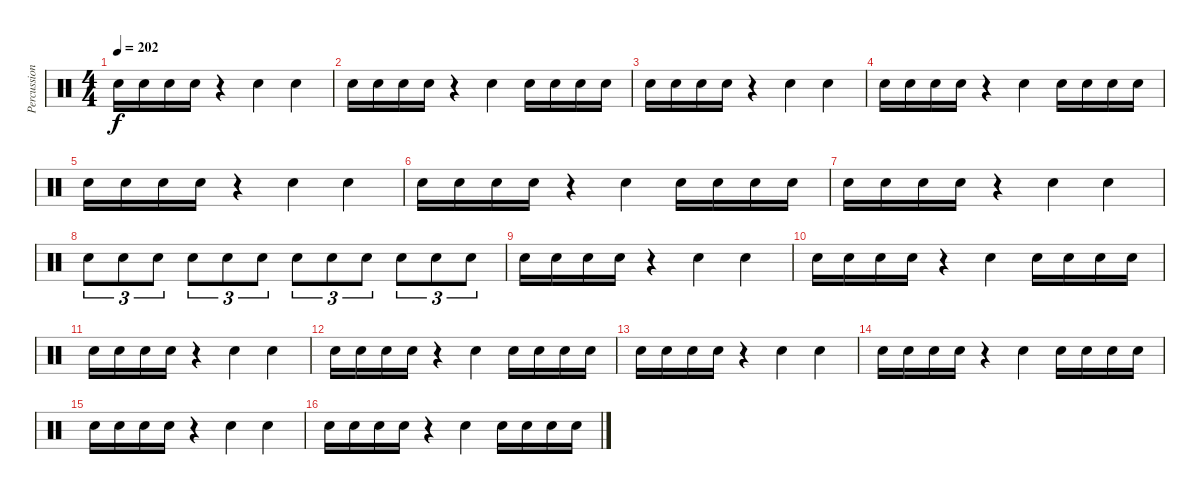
\track ("Percussion" "Percussion") {instrument percussion}
\staff {score}
\articulation defaults
\ts (4 4)
\tempo 202
\clef neutral
\ks c "Snare (hit) 2".16{dy f} "Snare (hit) 2".16 "Snare (hit) 2".16 "Snare (hit) 2".16
r.4 "Snare (hit) 2".4 "Snare (hit) 2".4 |
"Snare (hit) 2".16 "Snare (hit) 2".16 "Snare (hit) 2".16 "Snare (hit) 2".16 r.4 "Snare (hit) 2".4 "Snare (hit) 2".16 "Snare (hit) 2".16 "Snare (hit) 2".16 "Snare (hit) 2".16 |
"Snare (hit) 2".16 "Snare (hit) 2".16 "Snare (hit) 2".16 "Snare (hit) 2".16 r.4 "Snare (hit) 2".4 "Snare (hit) 2".4 |
"Snare (hit) 2".16 "Snare (hit) 2".16 "Snare (hit) 2".16 "Snare (hit) 2".16 r.4 "Snare (hit) 2".4 "Snare (hit) 2".16 "Snare (hit) 2".16 "Snare (hit) 2".16 "Snare (hit) 2".16 |
"Snare (hit) 2".16 "Snare (hit) 2".16 "Snare (hit) 2".16 "Snare (hit) 2".16 r.4 "Snare (hit) 2".4 "Snare (hit) 2".4 |
"Snare (hit) 2".16 "Snare (hit) 2".16 "Snare (hit) 2".16 "Snare (hit) 2".16 r.4 "Snare (hit) 2".4 "Snare (hit) 2".16 "Snare (hit) 2".16 "Snare (hit) 2".16 "Snare (hit) 2".16 |
"Snare (hit) 2".16 "Snare (hit) 2".16 "Snare (hit) 2".16 "Snare (hit) 2".16 r.4 "Snare (hit) 2".4 "Snare (hit) 2".4 |
"Snare (hit) 2".8{tu (3 2)} "Snare (hit) 2".8{tu (3 2)} "Snare (hit) 2".8{tu (3 2)} "Snare (hit) 2".8{tu (3 2)} "Snare (hit) 2".8{tu (3 2)} "Snare (hit) 2".8{tu (3 2)} "Snare (hit) 2".8{tu (3 2)} "Snare (hit) 2".8{tu (3 2)} "Snare (hit) 2".8{tu (3 2)} "Snare (hit) 2".8{tu (3 2)} "Snare (hit) 2".8{tu (3 2)} "Snare (hit) 2".8{tu (3 2)} |
"Snare (hit) 2".16 "Snare (hit) 2".16 "Snare (hit) 2".16 "Snare (hit) 2".16 r.4 "Snare (hit) 2".4 "Snare (hit) 2".4 |
"Snare (hit) 2".16 "Snare (hit) 2".16 "Snare (hit) 2".16 "Snare (hit) 2".16 r.4 "Snare (hit) 2".4 "Snare (hit) 2".16 "Snare (hit) 2".16 "Snare (hit) 2".16 "Snare (hit) 2".16 |
"Snare (hit) 2".16 "Snare (hit) 2".16 "Snare (hit) 2".16 "Snare (hit) 2".16 r.4 "Snare (hit) 2".4 "Snare (hit) 2".4 |
"Snare (hit) 2".16 "Snare (hit) 2".16 "Snare (hit) 2".16 "Snare (hit) 2".16 r.4 "Snare (hit) 2".4 "Snare (hit) 2".16 "Snare (hit) 2".16 "Snare (hit) 2".16 "Snare (hit) 2".16 |
"Snare (hit) 2".16 "Snare (hit) 2".16 "Snare (hit) 2".16 "Snare (hit) 2".16 r.4 "Snare (hit) 2".4 "Snare (hit) 2".4 |
"Snare (hit) 2".16 "Snare (hit) 2".16 "Snare (hit) 2".16 "Snare (hit) 2".16 r.4 "Snare (hit) 2".4 "Snare (hit) 2".16 "Snare (hit) 2".16 "Snare (hit) 2".16 "Snare (hit) 2".16 |
"Snare (hit) 2".16 "Snare (hit) 2".16 "Snare (hit) 2".16 "Snare (hit) 2".16 r.4 "Snare (hit) 2".4 "Snare (hit) 2".4 |
"Snare (hit) 2".16 "Snare (hit) 2".16 "Snare (hit) 2".16 "Snare (hit) 2".16 r.4 "Snare (hit) 2".4 "Snare (hit) 2".16 "Snare (hit) 2".16 "Snare (hit) 2".16 "Snare (hit) 2".16
